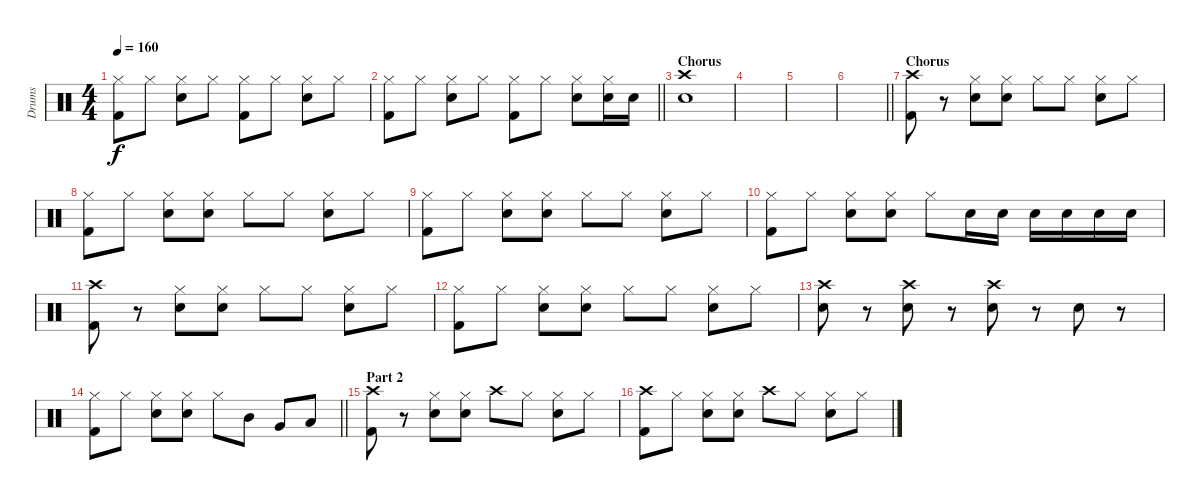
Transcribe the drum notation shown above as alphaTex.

\track ("Drums" "Drums") {instrument percussion}
\staff {score}
\articulation defaults
\ts (4 4)
\tempo 160
\clef neutral
\ks c
("Hi-Hat (closed)" "Kick (hit) 2").8{dy f} "Hi-Hat (closed)".8 ("Hi-Hat (closed)" "Electric Snare (hit)").8 "Hi-Hat (closed)".8 ("Hi-Hat (closed)" "Kick (hit) 2").8 "Hi-Hat (closed)".8 ("Hi-Hat (closed)" "Electric Snare (hit)").8 "Hi-Hat (closed)".8 |
\barLineRight lightlight
("Hi-Hat (closed)" "Kick (hit) 2").8 "Hi-Hat (closed)".8 ("Hi-Hat (closed)" "Electric Snare (hit)").8 "Hi-Hat (closed)".8 ("Hi-Hat (closed)" "Kick (hit) 2").8 "Hi-Hat (closed)".8 ("Hi-Hat (closed)" "Electric Snare (hit)").8 ("Hi-Hat (closed)" "Electric Snare (hit)").16 "Electric Snare (hit)".16 |
\section ("" "Chorus")
("Crash high (hit)" "Electric Snare (hit)").1 |
|
|
\barLineRight lightlight
|
\section ("" "Chorus")
("Crash high (hit)" "Kick (hit) 2").8 r.8 ("Hi-Hat (closed)" "Electric Snare (hit)").8 ("Hi-Hat (closed)" "Electric Snare (hit)").8 "Hi-Hat (closed)".8 "Hi-Hat (closed)".8 ("Hi-Hat (closed)" "Electric Snare (hit)").8 "Hi-Hat (closed)".8 |
("Hi-Hat (closed)" "Kick (hit) 2").8 "Hi-Hat (closed)".8 ("Hi-Hat (closed)" "Electric Snare (hit)").8 ("Hi-Hat (closed)" "Electric Snare (hit)").8 "Hi-Hat (closed)".8 "Hi-Hat (closed)".8 ("Hi-Hat (closed)" "Electric Snare (hit)").8 "Hi-Hat (closed)".8 |
("Hi-Hat (closed)" "Kick (hit) 2").8 "Hi-Hat (closed)".8 ("Hi-Hat (closed)" "Electric Snare (hit)").8 ("Hi-Hat (closed)" "Electric Snare (hit)").8 "Hi-Hat (closed)".8 "Hi-Hat (closed)".8 ("Hi-Hat (closed)" "Electric Snare (hit)").8 "Hi-Hat (closed)".8 |
("Hi-Hat (closed)" "Kick (hit) 2").8 "Hi-Hat (closed)".8 ("Hi-Hat (closed)" "Electric Snare (hit)").8 ("Hi-Hat (closed)" "Electric Snare (hit)").8 "Hi-Hat (closed)".8 "Electric Snare (hit)".16 "Electric Snare (hit)".16 "Electric Snare (hit)".16 "Electric Snare (hit)".16 "Electric Snare (hit)".16 "Electric Snare (hit)".16 |
("Crash high (hit)" "Kick (hit) 2").8 r.8 ("Hi-Hat (closed)" "Electric Snare (hit)").8 ("Hi-Hat (closed)" "Electric Snare (hit)").8 "Hi-Hat (closed)".8 "Hi-Hat (closed)".8 ("Hi-Hat (closed)" "Electric Snare (hit)").8 "Hi-Hat (closed)".8 |
("Hi-Hat (closed)" "Kick (hit) 2").8 "Hi-Hat (closed)".8 ("Hi-Hat (closed)" "Electric Snare (hit)").8 ("Hi-Hat (closed)" "Electric Snare (hit)").8 "Hi-Hat (closed)".8 "Hi-Hat (closed)".8 ("Hi-Hat (closed)" "Electric Snare (hit)").8 "Hi-Hat (closed)".8 |
("Crash high (hit)" "Electric Snare (hit)").8 r.8 ("Crash high (hit)" "Electric Snare (hit)").8 r.8 ("Crash high (hit)" "Electric Snare (hit)").8 r.8 "Electric Snare (hit)".8 r.8 |
\barLineRight lightlight
("Hi-Hat (closed)" "Kick (hit) 2").8 "Hi-Hat (closed)".8 ("Hi-Hat (closed)" "Electric Snare (hit)").8 ("Hi-Hat (closed)" "Electric Snare (hit)").8 "Hi-Hat (closed)".8 "Mid Tom (hit)".8 "Very Low Tom (hit)".8 "Low Tom (hit)".8 |
\section ("" "Part 2")
("Crash high (hit)" "Kick (hit) 2").8 r.8 ("Hi-Hat (closed)" "Electric Snare (hit)").8 ("Hi-Hat (closed)" "Electric Snare (hit)").8 "Crash high (hit)".8 "Hi-Hat (closed)".8 ("Hi-Hat (closed)" "Electric Snare (hit)").8 "Hi-Hat (closed)".8 |
("Crash high (hit)" "Kick (hit) 2").8 "Hi-Hat (closed)".8 ("Hi-Hat (closed)" "Electric Snare (hit)").8 ("Hi-Hat (closed)" "Electric Snare (hit)").8 "Crash high (hit)".8 "Hi-Hat (closed)".8 ("Hi-Hat (closed)" "Electric Snare (hit)").8 "Hi-Hat (closed)".8
